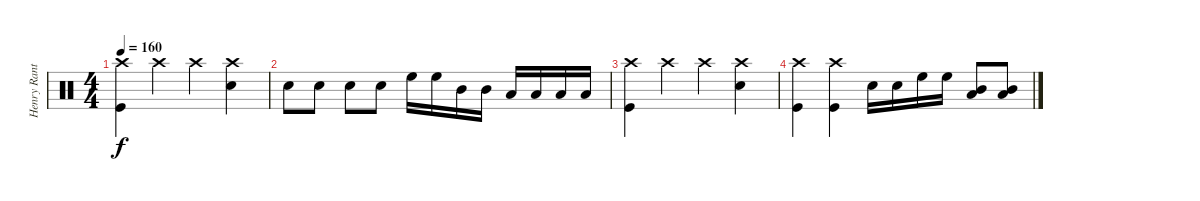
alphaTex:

\track ("Henry Ranta" "Henry Rant") {instrument percussion}
\staff {score}
\articulation defaults
\ts (4 4)
\tempo 160
\clef neutral
\ks c
("Crash high (hit)" "Kick (hit)").4{dy f} "Crash high (hit)".4 "Crash high (hit)".4 ("Crash high (hit)" "Snare (hit) 2").4 |
"Snare (hit) 2".8 "Snare (hit) 2".8 "Snare (hit) 2".8 "Snare (hit) 2".8 "High Floor Tom (hit)".16 "High Floor Tom (hit)".16 "Mid Tom (hit)".16 "Mid Tom (hit)".16 "Low Tom (hit)".16 "Low Tom (hit)".16 "Low Floor Tom (hit)".16 "Low Floor Tom (hit)".16 |
("Crash high (hit)" "Kick (hit)").4 "Crash high (hit)".4 "Crash high (hit)".4 ("Crash high (hit)" "Snare (hit) 2").4 |
("Crash high (hit)" "Kick (hit)").4 ("Crash high (hit)" "Kick (hit)").4 "Snare (hit) 2".16 "Snare (hit) 2".16 "High Floor Tom (hit)".16 "High Floor Tom (hit)".16 ("Low Floor Tom (hit)" "Mid Tom (hit)").8 ("Low Floor Tom (hit)" "Mid Tom (hit)").8
